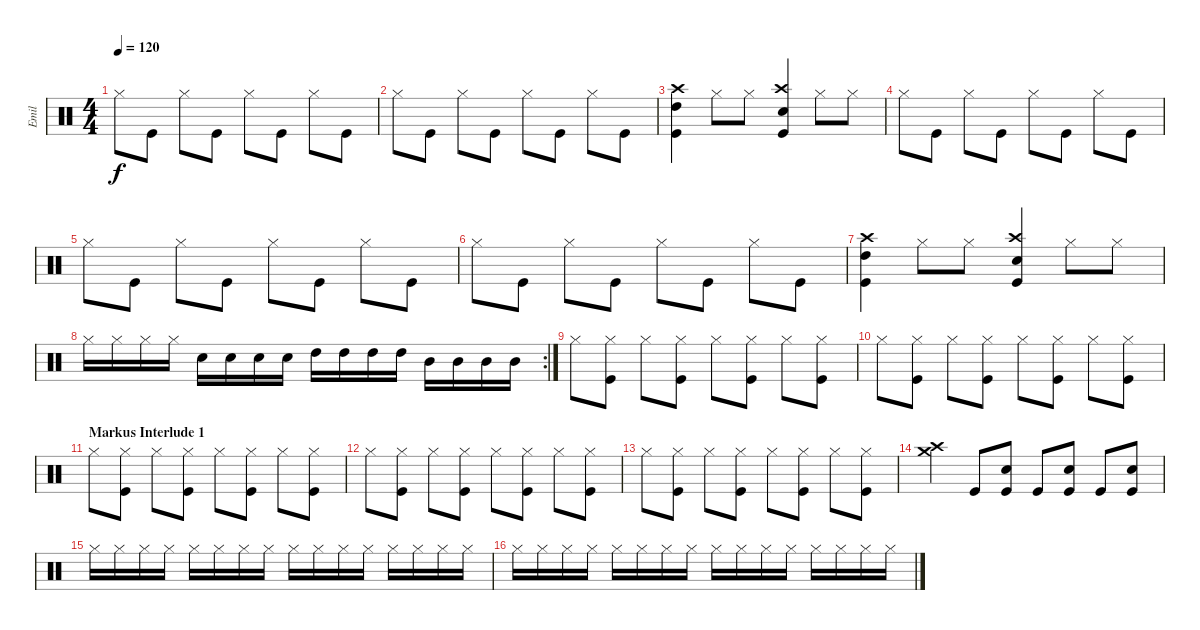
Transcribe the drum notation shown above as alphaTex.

\track ("Emil" "Emil") {instrument percussion}
\staff {score}
\articulation defaults
\ts (4 4)
\tempo 120
\clef neutral
\ks c "Hi-Hat (closed)".8{dy f} "Kick (hit)".8 "Hi-Hat (closed)".8 "Kick (hit)".8 "Hi-Hat (closed)".8 "Kick (hit)".8 "Hi-Hat (closed)".8 "Kick (hit)".8
|
"Hi-Hat (closed)".8 "Kick (hit)".8 "Hi-Hat (closed)".8 "Kick (hit)".8 "Hi-Hat (closed)".8 "Kick (hit)".8 "Hi-Hat (closed)".8 "Kick (hit)".8 |
("Kick (hit)" "High Tom (hit)" "Crash high (hit)").4 "Hi-Hat (closed)".8 "Hi-Hat (closed)".8 ("Kick (hit)" "Electric Snare (hit)" "Crash high (hit)").4 "Hi-Hat (closed)".8 "Hi-Hat (closed)".8 |
"Hi-Hat (closed)".8 "Kick (hit)".8 "Hi-Hat (closed)".8 "Kick (hit)".8 "Hi-Hat (closed)".8 "Kick (hit)".8 "Hi-Hat (closed)".8 "Kick (hit)".8 |
"Hi-Hat (closed)".8 "Kick (hit)".8 "Hi-Hat (closed)".8 "Kick (hit)".8 "Hi-Hat (closed)".8 "Kick (hit)".8 "Hi-Hat (closed)".8 "Kick (hit)".8 |
"Hi-Hat (closed)".8 "Kick (hit)".8 "Hi-Hat (closed)".8 "Kick (hit)".8 "Hi-Hat (closed)".8 "Kick (hit)".8 "Hi-Hat (closed)".8 "Kick (hit)".8 |
("Kick (hit)" "High Tom (hit)" "Crash high (hit)").4 "Hi-Hat (closed)".8 "Hi-Hat (closed)".8 ("Kick (hit)" "Electric Snare (hit)" "Crash high (hit)").4 "Hi-Hat (closed)".8 "Hi-Hat (closed)".8 |
\rc 2 "Hi-Hat (closed)".16 "Hi-Hat (closed)".16 "Hi-Hat (closed)".16 "Hi-Hat (closed)".16 "Electric Snare (hit)".16 "Electric Snare (hit)".16 "Electric Snare (hit)".16 "Electric Snare (hit)".16 "High Tom (hit)".16 "High Tom (hit)".16 "High Tom (hit)".16 "High Tom (hit)".16 "Mid Tom (hit)".16 "Mid Tom (hit)".16 "Mid Tom (hit)".16 "Mid Tom (hit)".16
|
"Hi-Hat (closed)".8 ("Hi-Hat (closed)" "Kick (hit)").8 "Hi-Hat (closed)".8 ("Hi-Hat (closed)" "Kick (hit)").8 "Hi-Hat (closed)".8 ("Hi-Hat (closed)" "Kick (hit)").8 "Hi-Hat (closed)".8 ("Hi-Hat (closed)" "Kick (hit)").8 |
"Hi-Hat (closed)".8 ("Hi-Hat (closed)" "Kick (hit)").8 "Hi-Hat (closed)".8 ("Hi-Hat (closed)" "Kick (hit)").8 "Hi-Hat (closed)".8 ("Hi-Hat (closed)" "Kick (hit)").8 "Hi-Hat (closed)".8 ("Hi-Hat (closed)" "Kick (hit)").8 |
\section ("" "Markus Interlude 1")
"Hi-Hat (closed)".8 ("Hi-Hat (closed)" "Kick (hit)").8 "Hi-Hat (closed)".8 ("Hi-Hat (closed)" "Kick (hit)").8 "Hi-Hat (closed)".8 ("Hi-Hat (closed)" "Kick (hit)").8 "Hi-Hat (closed)".8 ("Hi-Hat (closed)" "Kick (hit)").8 |
"Hi-Hat (closed)".8 ("Hi-Hat (closed)" "Kick (hit)").8 "Hi-Hat (closed)".8 ("Hi-Hat (closed)" "Kick (hit)").8 "Hi-Hat (closed)".8 ("Hi-Hat (closed)" "Kick (hit)").8 "Hi-Hat (closed)".8 ("Hi-Hat (closed)" "Kick (hit)").8 |
"Hi-Hat (closed)".8 ("Hi-Hat (closed)" "Kick (hit)").8 "Hi-Hat (closed)".8 ("Hi-Hat (closed)" "Kick (hit)").8 "Hi-Hat (closed)".8 ("Hi-Hat (closed)" "Kick (hit)").8 "Hi-Hat (closed)".8 ("Hi-Hat (closed)" "Kick (hit)").8 |
("Crash medium (hit)" "Crash high (hit)").4 "Kick (hit)".8 ("Electric Snare (hit)" "Kick (hit)").8 "Kick (hit)".8 ("Electric Snare (hit)" "Kick (hit)").8 "Kick (hit)".8 ("Electric Snare (hit)" "Kick (hit)").8 |
"Hi-Hat (closed)".16 "Hi-Hat (closed)".16 "Hi-Hat (closed)".16 "Hi-Hat (closed)".16 "Hi-Hat (closed)".16 "Hi-Hat (closed)".16 "Hi-Hat (closed)".16 "Hi-Hat (closed)".16 "Hi-Hat (closed)".16 "Hi-Hat (closed)".16 "Hi-Hat (closed)".16 "Hi-Hat (closed)".16 "Hi-Hat (closed)".16 "Hi-Hat (closed)".16 "Hi-Hat (closed)".16 "Hi-Hat (closed)".16 |
"Hi-Hat (closed)".16 "Hi-Hat (closed)".16 "Hi-Hat (closed)".16 "Hi-Hat (closed)".16 "Hi-Hat (closed)".16 "Hi-Hat (closed)".16 "Hi-Hat (closed)".16 "Hi-Hat (closed)".16 "Hi-Hat (closed)".16 "Hi-Hat (closed)".16 "Hi-Hat (closed)".16 "Hi-Hat (closed)".16 "Hi-Hat (closed)".16 "Hi-Hat (closed)".16 "Hi-Hat (closed)".16 "Hi-Hat (closed)".16
